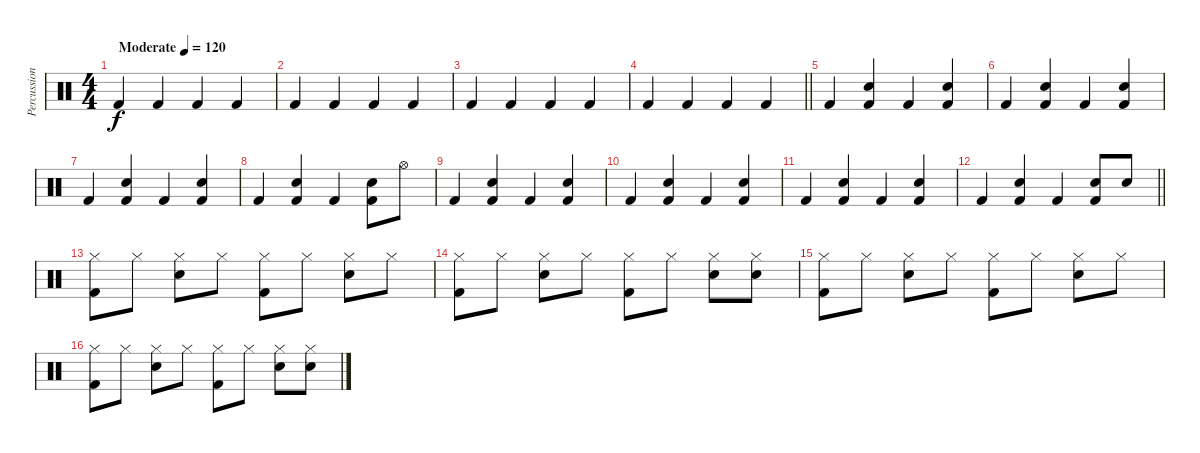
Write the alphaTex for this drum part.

\track ("Percussion" "Percussion") {instrument percussion}
\staff {score}
\articulation defaults
\ts (4 4)
\tempo (120 "Moderate")
\clef neutral
\ks c "Kick (hit) 2".4{dy f} "Kick (hit) 2".4 "Kick (hit) 2".4 "Kick (hit) 2".4
|
"Kick (hit) 2".4 "Kick (hit) 2".4 "Kick (hit) 2".4 "Kick (hit) 2".4 |
"Kick (hit) 2".4 "Kick (hit) 2".4 "Kick (hit) 2".4 "Kick (hit) 2".4 |
\barLineRight lightlight "Kick (hit) 2".4 "Kick (hit) 2".4 "Kick (hit) 2".4 "Kick (hit) 2".4
|
"Kick (hit) 2".4 ("Electric Snare (hit)" "Kick (hit) 2").4 "Kick (hit) 2".4 ("Electric Snare (hit)" "Kick (hit) 2").4 |
"Kick (hit) 2".4 ("Electric Snare (hit)" "Kick (hit) 2").4 "Kick (hit) 2".4 ("Electric Snare (hit)" "Kick (hit) 2").4 |
"Kick (hit) 2".4 ("Electric Snare (hit)" "Kick (hit) 2").4 "Kick (hit) 2".4 ("Electric Snare (hit)" "Kick (hit) 2").4 |
"Kick (hit) 2".4 ("Electric Snare (hit)" "Kick (hit) 2").4 "Kick (hit) 2".4 ("Electric Snare (hit)" "Kick (hit) 2").8 "Hi-Hat (open)".8 |
"Kick (hit) 2".4 ("Electric Snare (hit)" "Kick (hit) 2").4 "Kick (hit) 2".4 ("Electric Snare (hit)" "Kick (hit) 2").4 |
"Kick (hit) 2".4 ("Electric Snare (hit)" "Kick (hit) 2").4 "Kick (hit) 2".4 ("Electric Snare (hit)" "Kick (hit) 2").4 |
"Kick (hit) 2".4 ("Electric Snare (hit)" "Kick (hit) 2").4 "Kick (hit) 2".4 ("Electric Snare (hit)" "Kick (hit) 2").4 |
\barLineRight lightlight "Kick (hit) 2".4
("Electric Snare (hit)" "Kick (hit) 2").4 "Kick (hit) 2".4 ("Electric Snare (hit)" "Kick (hit) 2").8 "Electric Snare (hit)".8 |
("Hi-Hat (closed)" "Kick (hit) 2").8 "Hi-Hat (closed)".8 ("Hi-Hat (closed)" "Electric Snare (hit)").8 "Hi-Hat (closed)".8 ("Hi-Hat (closed)" "Kick (hit) 2").8 "Hi-Hat (closed)".8 ("Hi-Hat (closed)" "Electric Snare (hit)").8 "Hi-Hat (closed)".8 |
("Hi-Hat (closed)" "Kick (hit) 2").8 "Hi-Hat (closed)".8 ("Hi-Hat (closed)" "Electric Snare (hit)").8 "Hi-Hat (closed)".8 ("Hi-Hat (closed)" "Kick (hit) 2").8 "Hi-Hat (closed)".8 ("Hi-Hat (closed)" "Electric Snare (hit)").8 ("Hi-Hat (closed)" "Electric Snare (hit)").8 |
("Hi-Hat (closed)" "Kick (hit) 2").8 "Hi-Hat (closed)".8 ("Hi-Hat (closed)" "Electric Snare (hit)").8 "Hi-Hat (closed)".8 ("Hi-Hat (closed)" "Kick (hit) 2").8 "Hi-Hat (closed)".8 ("Hi-Hat (closed)" "Electric Snare (hit)").8 "Hi-Hat (closed)".8 |
("Hi-Hat (closed)" "Kick (hit) 2").8 "Hi-Hat (closed)".8 ("Hi-Hat (closed)" "Electric Snare (hit)").8 "Hi-Hat (closed)".8 ("Hi-Hat (closed)" "Kick (hit) 2").8 "Hi-Hat (closed)".8 ("Hi-Hat (closed)" "Electric Snare (hit)").8 ("Hi-Hat (closed)" "Electric Snare (hit)").8
